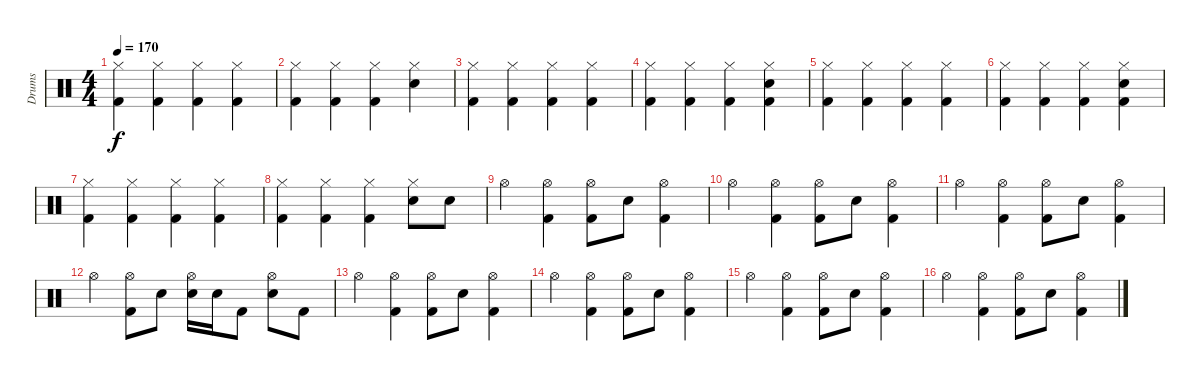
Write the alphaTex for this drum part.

\track ("Drums" "Drums") {instrument percussion}
\staff {score}
\articulation defaults
\ts (4 4)
\tempo 170
\clef neutral
\ks c
("Hi-Hat (closed)" "Kick (hit) 2").4{dy f} ("Hi-Hat (closed)" "Kick (hit) 2").4 ("Hi-Hat (closed)" "Kick (hit) 2").4 ("Hi-Hat (closed)" "Kick (hit) 2").4 |
("Hi-Hat (closed)" "Kick (hit) 2").4 ("Hi-Hat (closed)" "Kick (hit) 2").4 ("Hi-Hat (closed)" "Kick (hit) 2").4 ("Hi-Hat (closed)" "Snare (hit) 2").4 |
("Hi-Hat (closed)" "Kick (hit) 2").4 ("Hi-Hat (closed)" "Kick (hit) 2").4 ("Hi-Hat (closed)" "Kick (hit) 2").4 ("Hi-Hat (closed)" "Kick (hit) 2").4 |
("Hi-Hat (closed)" "Kick (hit) 2").4 ("Hi-Hat (closed)" "Kick (hit) 2").4 ("Hi-Hat (closed)" "Kick (hit) 2").4 ("Hi-Hat (closed)" "Snare (hit) 2" "Kick (hit) 2").4 |
("Hi-Hat (closed)" "Kick (hit) 2").4 ("Hi-Hat (closed)" "Kick (hit) 2").4 ("Hi-Hat (closed)" "Kick (hit) 2").4 ("Hi-Hat (closed)" "Kick (hit) 2").4 |
("Hi-Hat (closed)" "Kick (hit) 2").4 ("Hi-Hat (closed)" "Kick (hit) 2").4 ("Hi-Hat (closed)" "Kick (hit) 2").4 ("Hi-Hat (closed)" "Snare (hit) 2" "Kick (hit) 2").4 |
("Hi-Hat (closed)" "Kick (hit) 2").4 ("Hi-Hat (closed)" "Kick (hit) 2").4 ("Hi-Hat (closed)" "Kick (hit) 2").4 ("Hi-Hat (closed)" "Kick (hit) 2").4 |
("Hi-Hat (closed)" "Kick (hit) 2").4 ("Hi-Hat (closed)" "Kick (hit) 2").4 ("Hi-Hat (closed)" "Kick (hit) 2").4 ("Hi-Hat (closed)" "Snare (hit) 2").8 "Snare (hit) 2".8 |
"Hi-Hat (open)".4 ("Hi-Hat (open)" "Kick (hit) 2").4 ("Hi-Hat (open)" "Kick (hit) 2").8 "Snare (hit) 2".8 ("Hi-Hat (open)" "Kick (hit) 2").4 |
"Hi-Hat (open)".4 ("Hi-Hat (open)" "Kick (hit) 2").4 ("Hi-Hat (open)" "Kick (hit) 2").8 "Snare (hit) 2".8 ("Hi-Hat (open)" "Kick (hit) 2").4 |
"Hi-Hat (open)".4 ("Hi-Hat (open)" "Kick (hit) 2").4 ("Hi-Hat (open)" "Kick (hit) 2").8 "Snare (hit) 2".8 ("Hi-Hat (open)" "Kick (hit) 2").4 |
"Hi-Hat (open)".4 ("Hi-Hat (open)" "Kick (hit) 2").8 "Snare (hit) 2".8 ("Hi-Hat (open)" "Snare (hit) 2").16 "Snare (hit) 2".16 "Kick (hit) 2".8 ("Hi-Hat (open)" "Snare (hit) 2").8 "Kick (hit) 2".8 |
"Hi-Hat (open)".4 ("Hi-Hat (open)" "Kick (hit) 2").4 ("Hi-Hat (open)" "Kick (hit) 2").8 "Snare (hit) 2".8 ("Hi-Hat (open)" "Kick (hit) 2").4 |
"Hi-Hat (open)".4 ("Hi-Hat (open)" "Kick (hit) 2").4 ("Hi-Hat (open)" "Kick (hit) 2").8 "Snare (hit) 2".8 ("Hi-Hat (open)" "Kick (hit) 2").4 |
"Hi-Hat (open)".4 ("Hi-Hat (open)" "Kick (hit) 2").4 ("Hi-Hat (open)" "Kick (hit) 2").8 "Snare (hit) 2".8 ("Hi-Hat (open)" "Kick (hit) 2").4 |
"Hi-Hat (open)".4 ("Hi-Hat (open)" "Kick (hit) 2").4 ("Hi-Hat (open)" "Kick (hit) 2").8 "Snare (hit) 2".8 ("Hi-Hat (open)" "Kick (hit) 2").4
